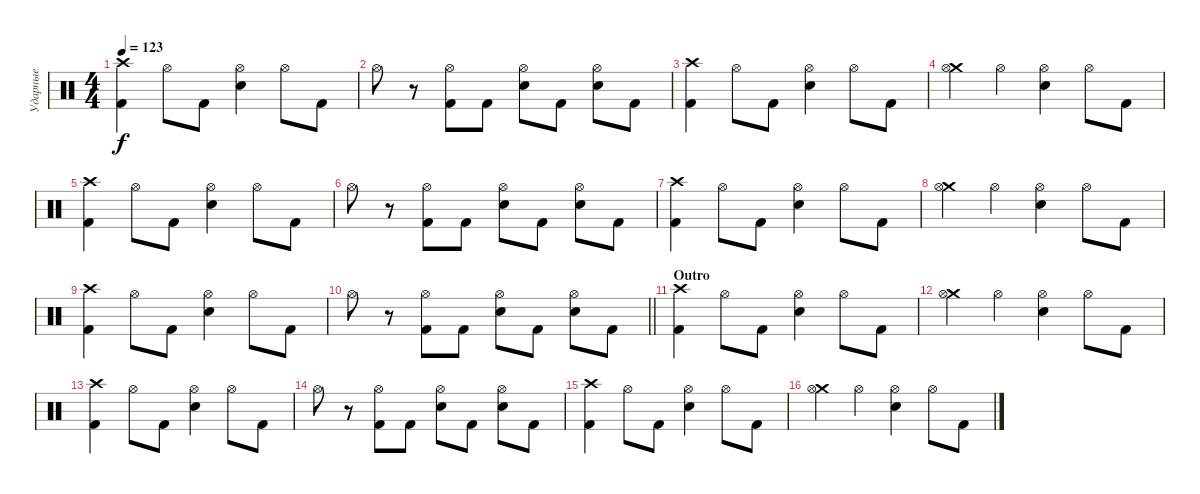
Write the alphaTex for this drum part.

\track ("Ударные" "Ударные") {instrument percussion}
\staff {score}
\articulation defaults
\ts (4 4)
\tempo 123
\clef neutral
\ks c
("Kick (hit) 2" "Crash high (hit)").4{dy f} "Hi-Hat (open)".8 "Kick (hit) 2".8 ("Electric Snare (hit)" "Hi-Hat (open)").4 "Hi-Hat (open)".8 "Kick (hit) 2".8 |
"Hi-Hat (open)".8 r.8 ("Kick (hit) 2" "Hi-Hat (open)").8 "Kick (hit) 2".8 ("Electric Snare (hit)" "Hi-Hat (open)").8 "Kick (hit) 2".8 ("Electric Snare (hit)" "Hi-Hat (open)").8 "Kick (hit) 2".8 |
("Kick (hit) 2" "Crash high (hit)").4 "Hi-Hat (open)".8 "Kick (hit) 2".8 ("Electric Snare (hit)" "Hi-Hat (open)").4 "Hi-Hat (open)".8 "Kick (hit) 2".8 |
("Crash medium (hit)" "Hi-Hat (open)").4 "Hi-Hat (open)".4 ("Electric Snare (hit)" "Hi-Hat (open)").4 "Hi-Hat (open)".8 "Kick (hit) 2".8 |
("Kick (hit) 2" "Crash high (hit)").4 "Hi-Hat (open)".8 "Kick (hit) 2".8 ("Electric Snare (hit)" "Hi-Hat (open)").4 "Hi-Hat (open)".8 "Kick (hit) 2".8 |
"Hi-Hat (open)".8 r.8 ("Kick (hit) 2" "Hi-Hat (open)").8 "Kick (hit) 2".8 ("Electric Snare (hit)" "Hi-Hat (open)").8 "Kick (hit) 2".8 ("Electric Snare (hit)" "Hi-Hat (open)").8 "Kick (hit) 2".8 |
("Kick (hit) 2" "Crash high (hit)").4 "Hi-Hat (open)".8 "Kick (hit) 2".8 ("Electric Snare (hit)" "Hi-Hat (open)").4 "Hi-Hat (open)".8 "Kick (hit) 2".8 |
("Crash medium (hit)" "Hi-Hat (open)").4 "Hi-Hat (open)".4 ("Electric Snare (hit)" "Hi-Hat (open)").4 "Hi-Hat (open)".8 "Kick (hit) 2".8 |
("Kick (hit) 2" "Crash high (hit)").4 "Hi-Hat (open)".8 "Kick (hit) 2".8 ("Electric Snare (hit)" "Hi-Hat (open)").4 "Hi-Hat (open)".8 "Kick (hit) 2".8 |
\barLineRight lightlight "Hi-Hat (open)".8
r.8 ("Kick (hit) 2" "Hi-Hat (open)").8 "Kick (hit) 2".8 ("Electric Snare (hit)" "Hi-Hat (open)").8 "Kick (hit) 2".8 ("Electric Snare (hit)" "Hi-Hat (open)").8 "Kick (hit) 2".8 |
\section ("" "Outro")
("Kick (hit) 2" "Crash high (hit)").4 "Hi-Hat (open)".8 "Kick (hit) 2".8 ("Electric Snare (hit)" "Hi-Hat (open)").4 "Hi-Hat (open)".8 "Kick (hit) 2".8 |
("Crash medium (hit)" "Hi-Hat (open)").4 "Hi-Hat (open)".4 ("Electric Snare (hit)" "Hi-Hat (open)").4 "Hi-Hat (open)".8 "Kick (hit) 2".8 |
("Kick (hit) 2" "Crash high (hit)").4 "Hi-Hat (open)".8 "Kick (hit) 2".8 ("Electric Snare (hit)" "Hi-Hat (open)").4 "Hi-Hat (open)".8 "Kick (hit) 2".8 |
"Hi-Hat (open)".8 r.8 ("Kick (hit) 2" "Hi-Hat (open)").8 "Kick (hit) 2".8 ("Electric Snare (hit)" "Hi-Hat (open)").8 "Kick (hit) 2".8 ("Electric Snare (hit)" "Hi-Hat (open)").8 "Kick (hit) 2".8 |
("Kick (hit) 2" "Crash high (hit)").4 "Hi-Hat (open)".8 "Kick (hit) 2".8 ("Electric Snare (hit)" "Hi-Hat (open)").4 "Hi-Hat (open)".8 "Kick (hit) 2".8 |
("Crash medium (hit)" "Hi-Hat (open)").4 "Hi-Hat (open)".4 ("Electric Snare (hit)" "Hi-Hat (open)").4 "Hi-Hat (open)".8 "Kick (hit) 2".8
